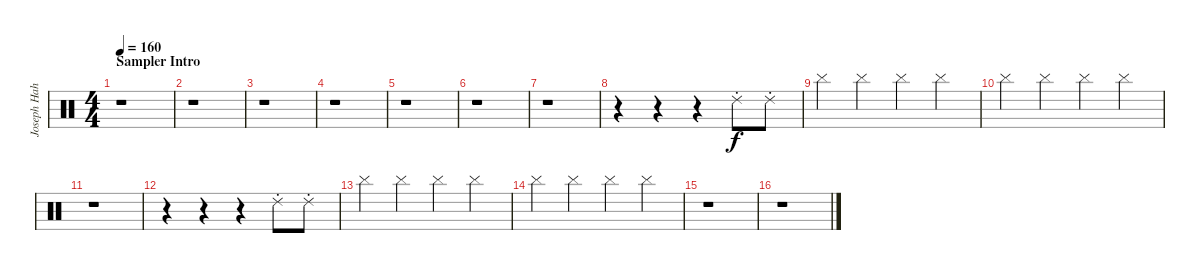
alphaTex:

\track ("Joseph Hahn (Sampler 3)" "Joseph Hah") {instrument percussion}
\staff {score}
\articulation defaults
\ts (4 4)
\section ("" "Sampler Intro")
\tempo 160
\clef neutral
\ks c
r.1{dy f} |
r.1 |
r.1 |
r.1 |
r.1 |
r.1 |
r.1 |
r.4 r.4 r.4 "Ride (choke) 2".8 "Ride (choke) 2".8 |
"Cymbal (hit)".4 "Cymbal (hit)".4 "Cymbal (hit)".4 "Cymbal (hit)".4 |
"Cymbal (hit)".4 "Cymbal (hit)".4 "Cymbal (hit)".4 "Cymbal (hit)".4 |
r.1 |
r.4 r.4 r.4 "Ride (choke) 2".8 "Ride (choke) 2".8 |
"Cymbal (hit)".4 "Cymbal (hit)".4 "Cymbal (hit)".4 "Cymbal (hit)".4 |
"Cymbal (hit)".4 "Cymbal (hit)".4 "Cymbal (hit)".4 "Cymbal (hit)".4 |
r.1 |
r.1
